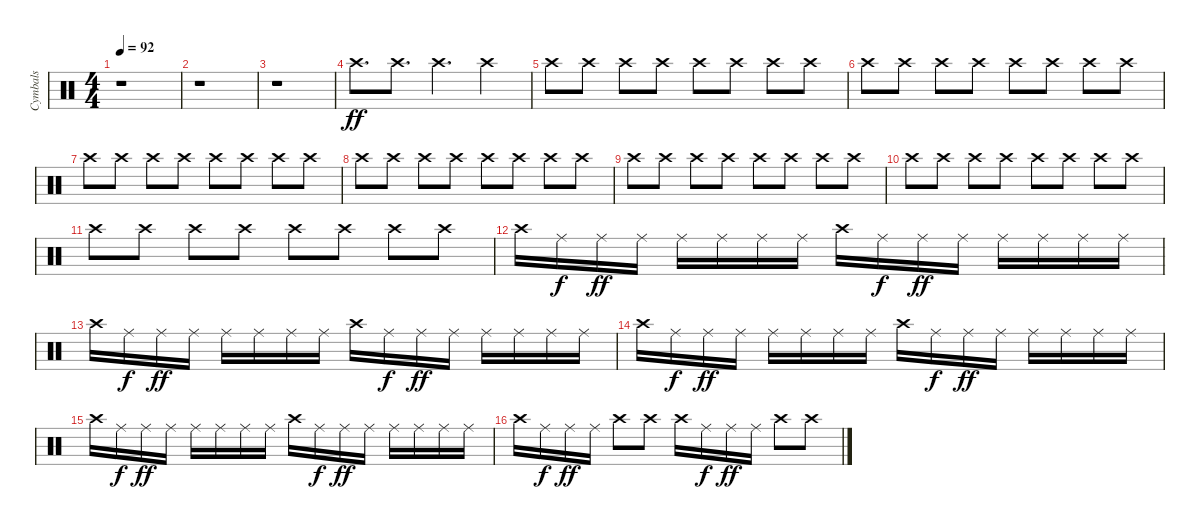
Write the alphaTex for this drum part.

\track ("Cymbals" "Cymbals") {instrument percussion}
\staff {score}
\articulation defaults
\ts (4 4)
\tempo 92
\clef neutral
\ks c
r.1{dy mf} |
r.1 |
r.1 |
"Crash high (hit)".8{d dy ff} "Crash high (hit)".8{d} "Crash high (hit)".4{d} "Crash high (hit)".4 |
"Crash high (hit)".8 "Crash high (hit)".8 "Crash high (hit)".8 "Crash high (hit)".8 "Crash high (hit)".8 "Crash high (hit)".8 "Crash high (hit)".8 "Crash high (hit)".8 |
"Crash high (hit)".8 "Crash high (hit)".8 "Crash high (hit)".8 "Crash high (hit)".8 "Crash high (hit)".8 "Crash high (hit)".8 "Crash high (hit)".8 "Crash high (hit)".8 |
"Crash high (hit)".8 "Crash high (hit)".8 "Crash high (hit)".8 "Crash high (hit)".8 "Crash high (hit)".8 "Crash high (hit)".8 "Crash high (hit)".8 "Crash high (hit)".8 |
"Crash high (hit)".8 "Crash high (hit)".8 "Crash high (hit)".8 "Crash high (hit)".8 "Crash high (hit)".8 "Crash high (hit)".8 "Crash high (hit)".8 "Crash high (hit)".8 |
"Crash high (hit)".8 "Crash high (hit)".8 "Crash high (hit)".8 "Crash high (hit)".8 "Crash high (hit)".8 "Crash high (hit)".8 "Crash high (hit)".8 "Crash high (hit)".8 |
"Crash high (hit)".8 "Crash high (hit)".8 "Crash high (hit)".8 "Crash high (hit)".8 "Crash high (hit)".8 "Crash high (hit)".8 "Crash high (hit)".8 "Crash high (hit)".8 |
"Crash high (hit)".8 "Crash high (hit)".8 "Crash high (hit)".8 "Crash high (hit)".8 "Crash high (hit)".8 "Crash high (hit)".8 "Crash high (hit)".8 "Crash high (hit)".8 |
"Crash high (hit)".16 "Ride (middle)".16{dy f} "Ride (middle)".16{dy ff} "Ride (middle)".16 "Ride (middle)".16 "Ride (middle)".16 "Ride (middle)".16 "Ride (middle)".16 "Crash high (hit)".16 "Ride (middle)".16{dy f} "Ride (middle)".16{dy ff} "Ride (middle)".16 "Ride (middle)".16 "Ride (middle)".16 "Ride (middle)".16 "Ride (middle)".16 |
"Crash high (hit)".16 "Ride (middle)".16{dy f} "Ride (middle)".16{dy ff} "Ride (middle)".16 "Ride (middle)".16 "Ride (middle)".16 "Ride (middle)".16 "Ride (middle)".16 "Crash high (hit)".16 "Ride (middle)".16{dy f} "Ride (middle)".16{dy ff} "Ride (middle)".16 "Ride (middle)".16 "Ride (middle)".16 "Ride (middle)".16 "Ride (middle)".16 |
"Crash high (hit)".16 "Ride (middle)".16{dy f} "Ride (middle)".16{dy ff} "Ride (middle)".16 "Ride (middle)".16 "Ride (middle)".16 "Ride (middle)".16 "Ride (middle)".16 "Crash high (hit)".16 "Ride (middle)".16{dy f} "Ride (middle)".16{dy ff} "Ride (middle)".16 "Ride (middle)".16 "Ride (middle)".16 "Ride (middle)".16 "Ride (middle)".16 |
"Crash high (hit)".16 "Ride (middle)".16{dy f} "Ride (middle)".16{dy ff} "Ride (middle)".16 "Ride (middle)".16 "Ride (middle)".16 "Ride (middle)".16 "Ride (middle)".16 "Crash high (hit)".16 "Ride (middle)".16{dy f} "Ride (middle)".16{dy ff} "Ride (middle)".16 "Ride (middle)".16 "Ride (middle)".16 "Ride (middle)".16 "Ride (middle)".16 |
"Crash high (hit)".16 "Ride (middle)".16{dy f} "Ride (middle)".16{dy ff} "Ride (middle)".16 "Crash high (hit)".8 "Crash high (hit)".8 "Crash high (hit)".16 "Ride (middle)".16{dy f} "Ride (middle)".16{dy ff} "Ride (middle)".16 "Crash high (hit)".8 "Crash high (hit)".8
